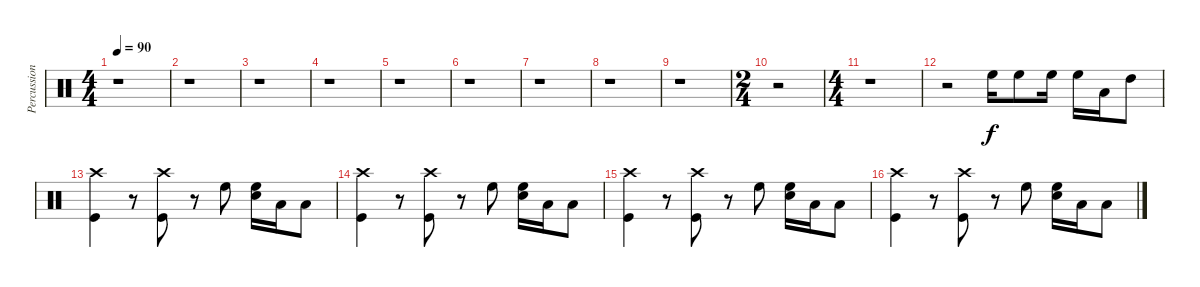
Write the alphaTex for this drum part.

\track ("Percussion" "Percussion") {instrument percussion}
\staff {score}
\articulation defaults
\ts (4 4)
\tempo 90
\clef neutral
\ks c
r.1{dy f} |
r.1 |
r.1 |
r.1 |
r.1 |
r.1 |
r.1 |
r.1 |
r.1 |
\ts (2 4)
r.2 |
\ts (4 4)
r.1 |
r.2 "High Floor Tom (hit)".16 "High Floor Tom (hit)".8 "High Floor Tom (hit)".16 "High Floor Tom (hit)".16 "Low Floor Tom (hit)".16 "High Tom (hit)".8 |
("Crash high (hit)" "Kick (hit)").4 r.8 ("Crash high (hit)" "Kick (hit)").8 r.8 "High Floor Tom (hit)".8 ("High Floor Tom (hit)" "Snare (hit) 2").16 "Low Floor Tom (hit)".16 "Low Floor Tom (hit)".8 |
("Crash high (hit)" "Kick (hit)").4 r.8 ("Crash high (hit)" "Kick (hit)").8 r.8 "High Floor Tom (hit)".8 ("High Floor Tom (hit)" "Snare (hit) 2").16 "Low Floor Tom (hit)".16 "Low Floor Tom (hit)".8 |
("Crash high (hit)" "Kick (hit)").4 r.8 ("Crash high (hit)" "Kick (hit)").8 r.8 "High Floor Tom (hit)".8 ("High Floor Tom (hit)" "Snare (hit) 2").16 "Low Floor Tom (hit)".16 "Low Floor Tom (hit)".8 |
("Crash high (hit)" "Kick (hit)").4 r.8 ("Crash high (hit)" "Kick (hit)").8 r.8 "High Floor Tom (hit)".8 ("High Floor Tom (hit)" "Snare (hit) 2").16 "Low Floor Tom (hit)".16 "Low Floor Tom (hit)".8
